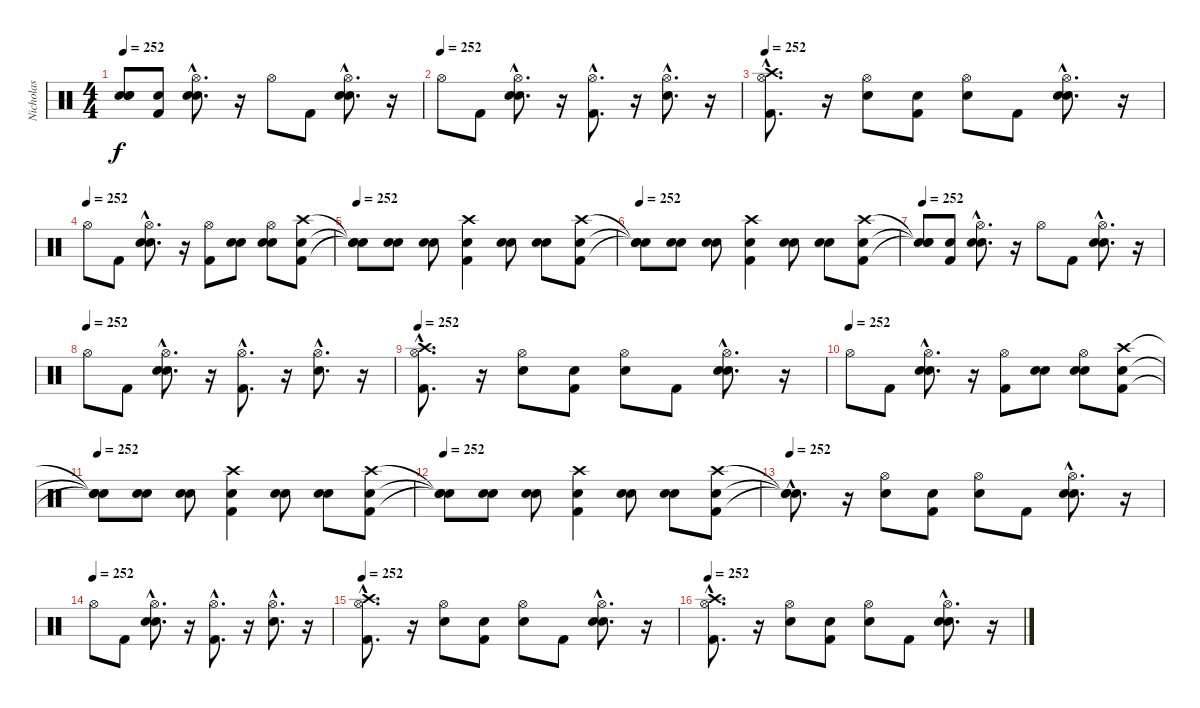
\track ("Nicholas" "Nicholas") {instrument percussion}
\staff {score}
\articulation defaults
\ts (4 4)
\tempo 252
\clef neutral
\ks c
("Snare (hit)"{t} "Snare (hit)"{t} "Snare (hit)"{t}).8{dy f} ("Snare (hit)" "Kick (hit) 2").8 ("Snare (hit)"{hac} "Snare (hit) 2"{hac} "Hi-Hat (open)"{hac}).8{d} r.16 "Hi-Hat (open)".8 "Kick (hit) 2".8 ("Snare (hit)"{hac} "Snare (hit) 2"{hac} "Hi-Hat (open)"{hac}).8{d} r.16 |
\tempo (252)
"Hi-Hat (open)".8 "Kick (hit) 2".8 ("Snare (hit)"{hac} "Snare (hit) 2"{hac} "Hi-Hat (open)"{hac}).8{d} r.16 ("Kick (hit) 2"{hac} "Hi-Hat (open)"{hac}).8{d} r.16 ("Snare (hit) 2"{hac} "Hi-Hat (open)"{hac}).8{d} r.16 |
\tempo 252
("Kick (hit) 2"{hac} "Hi-Hat (open)"{hac} "Crash high (hit)"{hac}).8{d} r.16 ("Snare (hit) 2" "Hi-Hat (open)").8 ("Snare (hit)" "Kick (hit) 2").8 ("Snare (hit)" "Hi-Hat (open)").8 "Kick (hit) 2".8 ("Snare (hit)"{hac} "Snare (hit) 2"{hac} "Hi-Hat (open)"{hac}).8{d} r.16 |
\tempo (252)
"Hi-Hat (open)".8 "Kick (hit) 2".8 ("Snare (hit)"{hac} "Snare (hit) 2"{hac} "Hi-Hat (open)"{hac}).8{d} r.16 ("Kick (hit) 2" "Hi-Hat (open)").8 ("Snare (hit)" "Snare (hit) 2").8 ("Snare (hit)" "Snare (hit) 2" "Hi-Hat (open)").8 ("Snare (hit)" "Kick (hit) 2" "Crash high (hit)").8 |
\tempo 252
("Snare (hit)"{t} "Snare (hit)"{t} "Snare (hit)"{t}).8 ("Snare (hit)" "Snare (hit) 2").8 ("Snare (hit)" "Snare (hit) 2").8 ("Snare (hit)" "Kick (hit) 2" "Crash high (hit)").4 ("Snare (hit)" "Snare (hit) 2").8 ("Snare (hit)" "Snare (hit) 2").8 ("Snare (hit)" "Kick (hit) 2" "Crash high (hit)").8 |
\tempo 252
("Snare (hit)"{t} "Snare (hit)"{t} "Snare (hit)"{t}).8 ("Snare (hit)" "Snare (hit) 2").8 ("Snare (hit)" "Snare (hit) 2").8 ("Snare (hit)" "Kick (hit) 2" "Crash high (hit)").4 ("Snare (hit)" "Snare (hit) 2").8 ("Snare (hit)" "Snare (hit) 2").8 ("Snare (hit)" "Kick (hit) 2" "Crash high (hit)").8 |
\tempo 252
("Snare (hit)"{t} "Snare (hit)"{t} "Snare (hit)"{t}).8 ("Snare (hit)" "Kick (hit) 2").8 ("Snare (hit)"{hac} "Snare (hit) 2"{hac} "Hi-Hat (open)"{hac}).8{d} r.16 "Hi-Hat (open)".8 "Kick (hit) 2".8 ("Snare (hit)"{hac} "Snare (hit) 2"{hac} "Hi-Hat (open)"{hac}).8{d} r.16 |
\tempo (252)
"Hi-Hat (open)".8 "Kick (hit) 2".8 ("Snare (hit)"{hac} "Snare (hit) 2"{hac} "Hi-Hat (open)"{hac}).8{d} r.16 ("Kick (hit) 2"{hac} "Hi-Hat (open)"{hac}).8{d} r.16 ("Snare (hit) 2"{hac} "Hi-Hat (open)"{hac}).8{d} r.16 |
\tempo 252
("Kick (hit) 2"{hac} "Hi-Hat (open)"{hac} "Crash high (hit)"{hac}).8{d} r.16 ("Snare (hit) 2" "Hi-Hat (open)").8 ("Snare (hit)" "Kick (hit) 2").8 ("Snare (hit)" "Hi-Hat (open)").8 "Kick (hit) 2".8 ("Snare (hit)"{hac} "Snare (hit) 2"{hac} "Hi-Hat (open)"{hac}).8{d} r.16 |
\tempo (252)
"Hi-Hat (open)".8 "Kick (hit) 2".8 ("Snare (hit)"{hac} "Snare (hit) 2"{hac} "Hi-Hat (open)"{hac}).8{d} r.16 ("Kick (hit) 2" "Hi-Hat (open)").8 ("Snare (hit)" "Snare (hit) 2").8 ("Snare (hit)" "Snare (hit) 2" "Hi-Hat (open)").8 ("Snare (hit)" "Kick (hit) 2" "Crash high (hit)").8 |
\tempo 252
("Snare (hit)"{t} "Snare (hit)"{t} "Snare (hit)"{t}).8 ("Snare (hit)" "Snare (hit) 2").8 ("Snare (hit)" "Snare (hit) 2").8 ("Snare (hit)" "Kick (hit) 2" "Crash high (hit)").4 ("Snare (hit)" "Snare (hit) 2").8 ("Snare (hit)" "Snare (hit) 2").8 ("Snare (hit)" "Kick (hit) 2" "Crash high (hit)").8 |
\tempo 252
("Snare (hit)"{t} "Snare (hit)"{t} "Snare (hit)"{t}).8 ("Snare (hit)" "Snare (hit) 2").8 ("Snare (hit)" "Snare (hit) 2").8 ("Snare (hit)" "Kick (hit) 2" "Crash high (hit)").4 ("Snare (hit)" "Snare (hit) 2").8 ("Snare (hit)" "Snare (hit) 2").8 ("Snare (hit)" "Kick (hit) 2" "Crash high (hit)").8 |
\tempo 252
("Snare (hit)"{hac t} "Snare (hit)"{hac t} "Snare (hit)"{hac t}).8{d} r.16 ("Snare (hit) 2" "Hi-Hat (open)").8 ("Snare (hit)" "Kick (hit) 2").8 ("Snare (hit)" "Hi-Hat (open)").8 "Kick (hit) 2".8 ("Snare (hit)"{hac} "Snare (hit) 2"{hac} "Hi-Hat (open)"{hac}).8{d} r.16 |
\tempo (252)
"Hi-Hat (open)".8 "Kick (hit) 2".8 ("Snare (hit)"{hac} "Snare (hit) 2"{hac} "Hi-Hat (open)"{hac}).8{d} r.16 ("Kick (hit) 2"{hac} "Hi-Hat (open)"{hac}).8{d} r.16 ("Snare (hit) 2"{hac} "Hi-Hat (open)"{hac}).8{d} r.16 |
\tempo 252
("Kick (hit) 2"{hac} "Hi-Hat (open)"{hac} "Crash high (hit)"{hac}).8{d} r.16 ("Snare (hit) 2" "Hi-Hat (open)").8 ("Snare (hit)" "Kick (hit) 2").8 ("Snare (hit)" "Hi-Hat (open)").8 "Kick (hit) 2".8 ("Snare (hit)"{hac} "Snare (hit) 2"{hac} "Hi-Hat (open)"{hac}).8{d} r.16 |
\tempo 252
("Kick (hit) 2"{hac} "Hi-Hat (open)"{hac} "Crash high (hit)"{hac}).8{d} r.16 ("Snare (hit) 2" "Hi-Hat (open)").8 ("Snare (hit)" "Kick (hit) 2").8 ("Snare (hit)" "Hi-Hat (open)").8 "Kick (hit) 2".8 ("Snare (hit)"{hac} "Snare (hit) 2"{hac} "Hi-Hat (open)"{hac}).8{d} r.16
